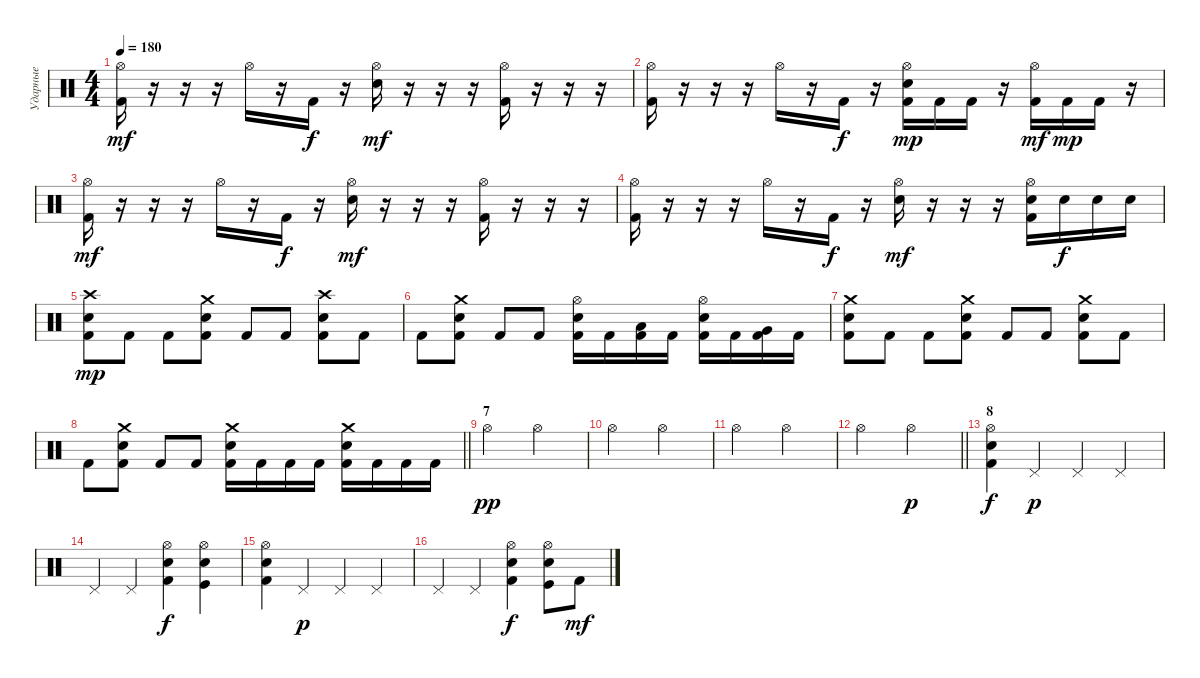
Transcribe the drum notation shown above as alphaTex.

\track ("Ударные" "Ударные") {instrument percussion}
\staff {score}
\articulation defaults
\ts (4 4)
\tempo 180
\clef neutral
\ks c
("Hi-Hat (open)" "Kick (hit) 2").16{dy mf} r.16 r.16 r.16 "Hi-Hat (open)".16 r.16 "Kick (hit) 2".16{dy f} r.16 ("Hi-Hat (open)" "Snare (hit) 2").16{dy mf} r.16 r.16 r.16 ("Hi-Hat (open)" "Kick (hit) 2").16 r.16 r.16 r.16 |
("Hi-Hat (open)" "Kick (hit) 2").16 r.16 r.16 r.16 "Hi-Hat (open)".16 r.16 "Kick (hit) 2".16{dy f} r.16 ("Hi-Hat (open)" "Snare (hit) 2" "Kick (hit) 2").16{dy mp} "Kick (hit) 2".16 "Kick (hit) 2".16 r.16 ("Hi-Hat (open)" "Kick (hit) 2").16{dy mf} "Kick (hit) 2".16{dy mp} "Kick (hit) 2".16 r.16 |
("Hi-Hat (open)" "Kick (hit) 2").16{dy mf} r.16 r.16 r.16 "Hi-Hat (open)".16 r.16 "Kick (hit) 2".16{dy f} r.16 ("Hi-Hat (open)" "Snare (hit) 2").16{dy mf} r.16 r.16 r.16 ("Hi-Hat (open)" "Kick (hit) 2").16 r.16 r.16 r.16 |
("Hi-Hat (open)" "Kick (hit) 2").16 r.16 r.16 r.16 "Hi-Hat (open)".16 r.16 "Kick (hit) 2".16{dy f} r.16 ("Hi-Hat (open)" "Snare (hit) 2").16{dy mf} r.16 r.16 r.16 ("Hi-Hat (open)" "Snare (hit) 2" "Kick (hit) 2").16 "Snare (hit) 2".16{dy f} "Snare (hit) 2".16 "Snare (hit) 2".16 |
("Crash high (hit)" "Snare (hit) 2" "Kick (hit) 2").8{dy mp} "Kick (hit) 2".8 "Kick (hit) 2".8 ("Crash medium (hit)" "Snare (hit) 2" "Kick (hit) 2").8 "Kick (hit) 2".8 "Kick (hit) 2".8 ("Crash high (hit)" "Snare (hit) 2" "Kick (hit) 2").8 "Kick (hit) 2".8 |
"Kick (hit) 2".8 ("Crash medium (hit)" "Snare (hit) 2" "Kick (hit) 2").8 "Kick (hit) 2".8 "Kick (hit) 2".8 ("Hi-Hat (open)" "Snare (hit) 2" "Kick (hit) 2").16 "Kick (hit) 2".16 ("Low Tom (hit)" "Kick (hit) 2").16 "Kick (hit) 2".16 ("Hi-Hat (open)" "Snare (hit) 2" "Kick (hit) 2").16 "Kick (hit) 2".16 ("Very Low Tom (hit)" "Kick (hit) 2").16 "Kick (hit) 2".16 |
("Crash medium (hit)" "Snare (hit) 2" "Kick (hit) 2").8 "Kick (hit) 2".8 "Kick (hit) 2".8 ("Crash medium (hit)" "Snare (hit) 2" "Kick (hit) 2").8 "Kick (hit) 2".8 "Kick (hit) 2".8 ("Crash medium (hit)" "Snare (hit) 2" "Kick (hit) 2").8 "Kick (hit) 2".8 |
\barLineRight lightlight "Kick (hit) 2".8
("Crash medium (hit)" "Snare (hit) 2" "Kick (hit) 2").8 "Kick (hit) 2".8 "Kick (hit) 2".8 ("Crash medium (hit)" "Snare (hit) 2" "Kick (hit) 2").16 "Kick (hit) 2".16 "Kick (hit) 2".16 "Kick (hit) 2".16 ("Crash medium (hit)" "Snare (hit) 2" "Kick (hit) 2").16 "Kick (hit) 2".16 "Kick (hit) 2".16 "Kick (hit) 2".16 |
\section ("" "7")
"Hi-Hat (open)".2{dy pp} "Hi-Hat (open)".2 |
"Hi-Hat (open)".2 "Hi-Hat (open)".2 |
"Hi-Hat (open)".2 "Hi-Hat (open)".2 |
\barLineRight lightlight "Hi-Hat (open)".2 "Hi-Hat (open)".2{dy p}
|
\section ("" "8")
("Hi-Hat (open)" "Snare (hit) 2" "Kick (hit) 2").4{dy f} "Pedal Hi-Hat (hit)".4{dy p} "Pedal Hi-Hat (hit)".4 "Pedal Hi-Hat (hit)".4 |
"Pedal Hi-Hat (hit)".4 "Pedal Hi-Hat (hit)".4 ("Hi-Hat (open)" "Snare (hit) 2" "Kick (hit) 2").4{dy f} ("Hi-Hat (open)" "Snare (hit) 2" "Kick (hit)").4 |
("Hi-Hat (open)" "Snare (hit) 2" "Kick (hit) 2").4 "Pedal Hi-Hat (hit)".4{dy p} "Pedal Hi-Hat (hit)".4 "Pedal Hi-Hat (hit)".4 |
"Pedal Hi-Hat (hit)".4 "Pedal Hi-Hat (hit)".4 ("Hi-Hat (open)" "Snare (hit) 2" "Kick (hit) 2").4{dy f} ("Hi-Hat (open)" "Snare (hit) 2" "Kick (hit)").8 "Kick (hit) 2".8{dy mf}
